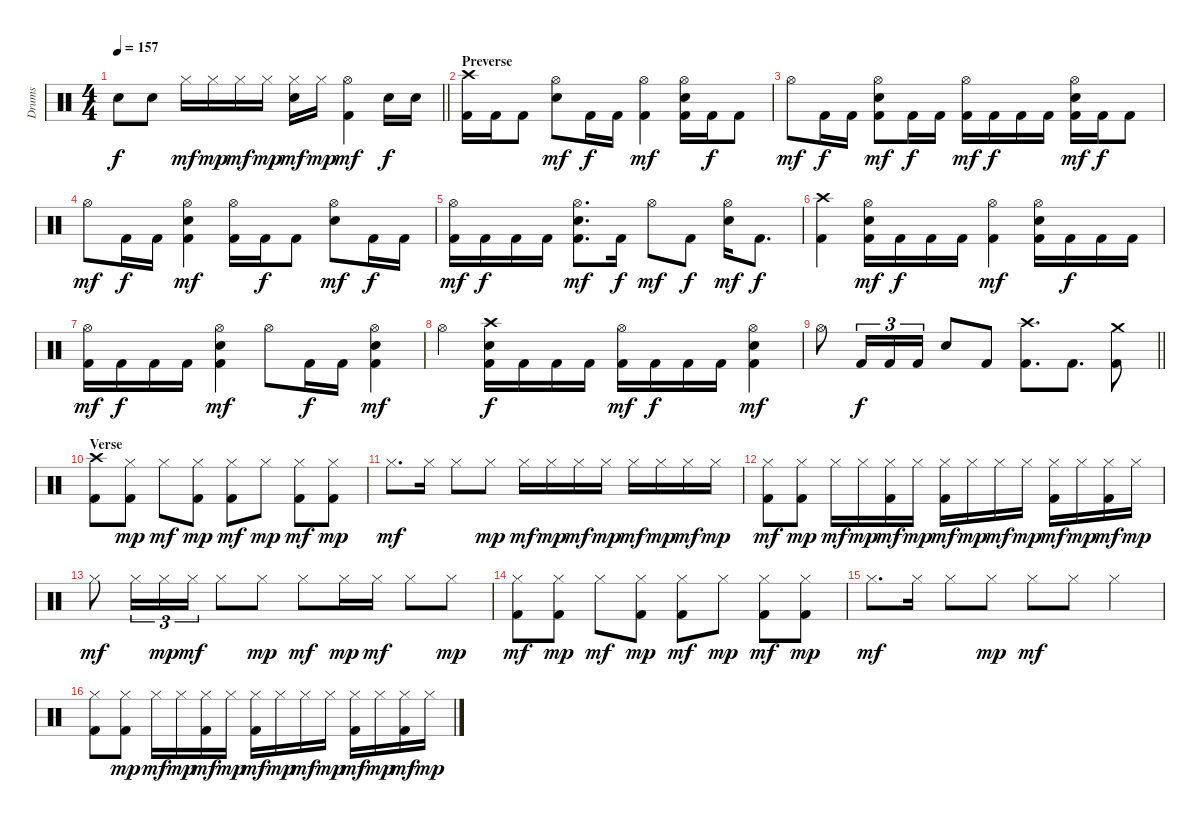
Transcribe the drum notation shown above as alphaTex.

\track ("Drums" "Drums") {instrument percussion}
\staff {score}
\articulation defaults
\ts (4 4)
\tempo 157
\clef neutral
\barLineRight lightlight
\ks c "Snare (hit)"{t}.8{dy f} "Electric Snare (hit)".8 "Hi-Hat (closed)".16{dy mf} "Hi-Hat (closed)".16{dy mp} "Hi-Hat (closed)".16{dy mf} "Hi-Hat (closed)".16{dy mp}
("Hi-Hat (closed)" "Electric Snare (hit)").16{dy mf} "Hi-Hat (closed)".16{dy mp} ("Kick (hit) 2" "Hi-Hat (open)").4{dy mf} "Electric Snare (hit)".16{dy f} "Electric Snare (hit)".16 |
\section ("" "Preverse")
("Kick (hit) 2" "Crash high (hit)").16 "Kick (hit) 2".16 "Kick (hit) 2".8 ("Hi-Hat (open)" "Electric Snare (hit)").8{dy mf} "Kick (hit) 2".16{dy f} "Kick (hit) 2".16 ("Kick (hit) 2" "Hi-Hat (open)").4{dy mf} ("Kick (hit) 2" "Hi-Hat (open)" "Electric Snare (hit)").16 "Kick (hit) 2".16{dy f} "Kick (hit) 2".8 |
"Hi-Hat (open)".8{dy mf} "Kick (hit) 2".16{dy f} "Kick (hit) 2".16 ("Kick (hit) 2" "Hi-Hat (open)" "Electric Snare (hit)").8{dy mf} "Kick (hit) 2".16{dy f} "Kick (hit) 2".16 ("Kick (hit) 2" "Hi-Hat (open)").16{dy mf} "Kick (hit) 2".16{dy f} "Kick (hit) 2".16 "Kick (hit) 2".16 ("Kick (hit) 2" "Hi-Hat (open)" "Electric Snare (hit)").16{dy mf} "Kick (hit) 2".16{dy f} "Kick (hit) 2".8 |
"Hi-Hat (open)".8{dy mf} "Kick (hit) 2".16{dy f} "Kick (hit) 2".16 ("Kick (hit) 2" "Hi-Hat (open)" "Electric Snare (hit)").4{dy mf} ("Kick (hit) 2" "Hi-Hat (open)").16 "Kick (hit) 2".16{dy f} "Kick (hit) 2".8 ("Hi-Hat (open)" "Electric Snare (hit)").8{dy mf} "Kick (hit) 2".16{dy f} "Kick (hit) 2".16 |
("Kick (hit) 2" "Hi-Hat (open)").16{dy mf} "Kick (hit) 2".16{dy f} "Kick (hit) 2".16 "Kick (hit) 2".16 ("Kick (hit) 2" "Hi-Hat (open)" "Electric Snare (hit)").8{d dy mf} "Kick (hit) 2".16{dy f} "Hi-Hat (open)".8{dy mf} "Kick (hit) 2".8{dy f} ("Hi-Hat (open)" "Electric Snare (hit)").16{dy mf} "Kick (hit) 2".8{d dy f} |
("Kick (hit) 2" "Crash high (hit)").4 ("Kick (hit) 2" "Hi-Hat (open)" "Electric Snare (hit)").16{dy mf} "Kick (hit) 2".16{dy f} "Kick (hit) 2".16 "Kick (hit) 2".16 ("Kick (hit) 2" "Hi-Hat (open)").4{dy mf} ("Kick (hit) 2" "Hi-Hat (open)" "Electric Snare (hit)").16 "Kick (hit) 2".16{dy f} "Kick (hit) 2".16 "Kick (hit) 2".16 |
("Kick (hit) 2" "Hi-Hat (open)").16{dy mf} "Kick (hit) 2".16{dy f} "Kick (hit) 2".16 "Kick (hit) 2".16 ("Kick (hit) 2" "Hi-Hat (open)" "Electric Snare (hit)").4{dy mf} "Hi-Hat (open)".8 "Kick (hit) 2".16{dy f} "Kick (hit) 2".16 ("Kick (hit) 2" "Hi-Hat (open)" "Electric Snare (hit)").4{dy mf} |
"Hi-Hat (open)".4 ("Kick (hit) 2" "Crash high (hit)" "Electric Snare (hit)").16{dy f} "Kick (hit) 2".16 "Kick (hit) 2".16 "Kick (hit) 2".16 ("Kick (hit) 2" "Hi-Hat (open)").16{dy mf} "Kick (hit) 2".16{dy f} "Kick (hit) 2".16 "Kick (hit) 2".16 ("Kick (hit) 2" "Hi-Hat (open)" "Electric Snare (hit)").4{dy mf} |
\barLineRight lightlight "Hi-Hat (open)".8 "Kick (hit) 2".16{tu (3 2) dy f} "Kick (hit) 2".16{tu (3 2)} "Kick (hit) 2".16{tu (3 2)} "Electric Snare (hit)".8 "Kick (hit) 2".8
("Kick (hit) 2" "Crash high (hit)").8{d} "Kick (hit) 2".8{d} ("Kick (hit) 2" "Crash medium (hit)").8 |
\section ("" "Verse")
("Kick (hit) 2" "Crash high (hit)").8 ("Kick (hit) 2" "Hi-Hat (closed)").8{dy mp} "Hi-Hat (closed)".8{dy mf} ("Kick (hit) 2" "Hi-Hat (closed)").8{dy mp} ("Kick (hit) 2" "Hi-Hat (closed)").8{dy mf} "Hi-Hat (closed)".8{dy mp} ("Kick (hit) 2" "Hi-Hat (closed)").8{dy mf} ("Kick (hit) 2" "Hi-Hat (closed)").8{dy mp} |
"Hi-Hat (closed)".8{d dy mf} "Hi-Hat (closed)".16 "Hi-Hat (closed)".8 "Hi-Hat (closed)".8{dy mp} "Hi-Hat (closed)".16{dy mf} "Hi-Hat (closed)".16{dy mp} "Hi-Hat (closed)".16{dy mf} "Hi-Hat (closed)".16{dy mp} "Hi-Hat (closed)".16{dy mf} "Hi-Hat (closed)".16{dy mp} "Hi-Hat (closed)".16{dy mf} "Hi-Hat (closed)".16{dy mp} |
("Kick (hit) 2" "Hi-Hat (closed)").8{dy mf} ("Kick (hit) 2" "Hi-Hat (closed)").8{dy mp} "Hi-Hat (closed)".16{dy mf} "Hi-Hat (closed)".16{dy mp} ("Kick (hit) 2" "Hi-Hat (closed)").16{dy mf} "Hi-Hat (closed)".16{dy mp} ("Kick (hit) 2" "Hi-Hat (closed)").16{dy mf} "Hi-Hat (closed)".16{dy mp} "Hi-Hat (closed)".16{dy mf} "Hi-Hat (closed)".16{dy mp} ("Kick (hit) 2" "Hi-Hat (closed)").16{dy mf} "Hi-Hat (closed)".16{dy mp} ("Kick (hit) 2" "Hi-Hat (closed)").16{dy mf} "Hi-Hat (closed)".16{dy mp} |
"Hi-Hat (closed)".8{dy mf} "Hi-Hat (closed)".16{tu (3 2)} "Hi-Hat (closed)".16{tu (3 2) dy mp} "Hi-Hat (closed)".16{tu (3 2) dy mf} "Hi-Hat (closed)".8 "Hi-Hat (closed)".8{dy mp} "Hi-Hat (closed)".8{dy mf} "Hi-Hat (closed)".16{dy mp} "Hi-Hat (closed)".16{dy mf} "Hi-Hat (closed)".8 "Hi-Hat (closed)".8{dy mp} |
("Kick (hit) 2" "Hi-Hat (closed)").8{dy mf} ("Kick (hit) 2" "Hi-Hat (closed)").8{dy mp} "Hi-Hat (closed)".8{dy mf} ("Kick (hit) 2" "Hi-Hat (closed)").8{dy mp} ("Kick (hit) 2" "Hi-Hat (closed)").8{dy mf} "Hi-Hat (closed)".8{dy mp} ("Kick (hit) 2" "Hi-Hat (closed)").8{dy mf} ("Kick (hit) 2" "Hi-Hat (closed)").8{dy mp} |
"Hi-Hat (closed)".8{d dy mf} "Hi-Hat (closed)".16 "Hi-Hat (closed)".8 "Hi-Hat (closed)".8{dy mp} "Hi-Hat (closed)".8{dy mf} "Hi-Hat (closed)".8 "Hi-Hat (closed)".4 |
("Kick (hit) 2" "Hi-Hat (closed)").8 ("Kick (hit) 2" "Hi-Hat (closed)").8{dy mp} "Hi-Hat (closed)".16{dy mf} "Hi-Hat (closed)".16{dy mp} ("Kick (hit) 2" "Hi-Hat (closed)").16{dy mf} "Hi-Hat (closed)".16{dy mp} ("Kick (hit) 2" "Hi-Hat (closed)").16{dy mf} "Hi-Hat (closed)".16{dy mp} "Hi-Hat (closed)".16{dy mf} "Hi-Hat (closed)".16{dy mp} ("Kick (hit) 2" "Hi-Hat (closed)").16{dy mf} "Hi-Hat (closed)".16{dy mp} ("Kick (hit) 2" "Hi-Hat (closed)").16{dy mf} "Hi-Hat (closed)".16{dy mp}
